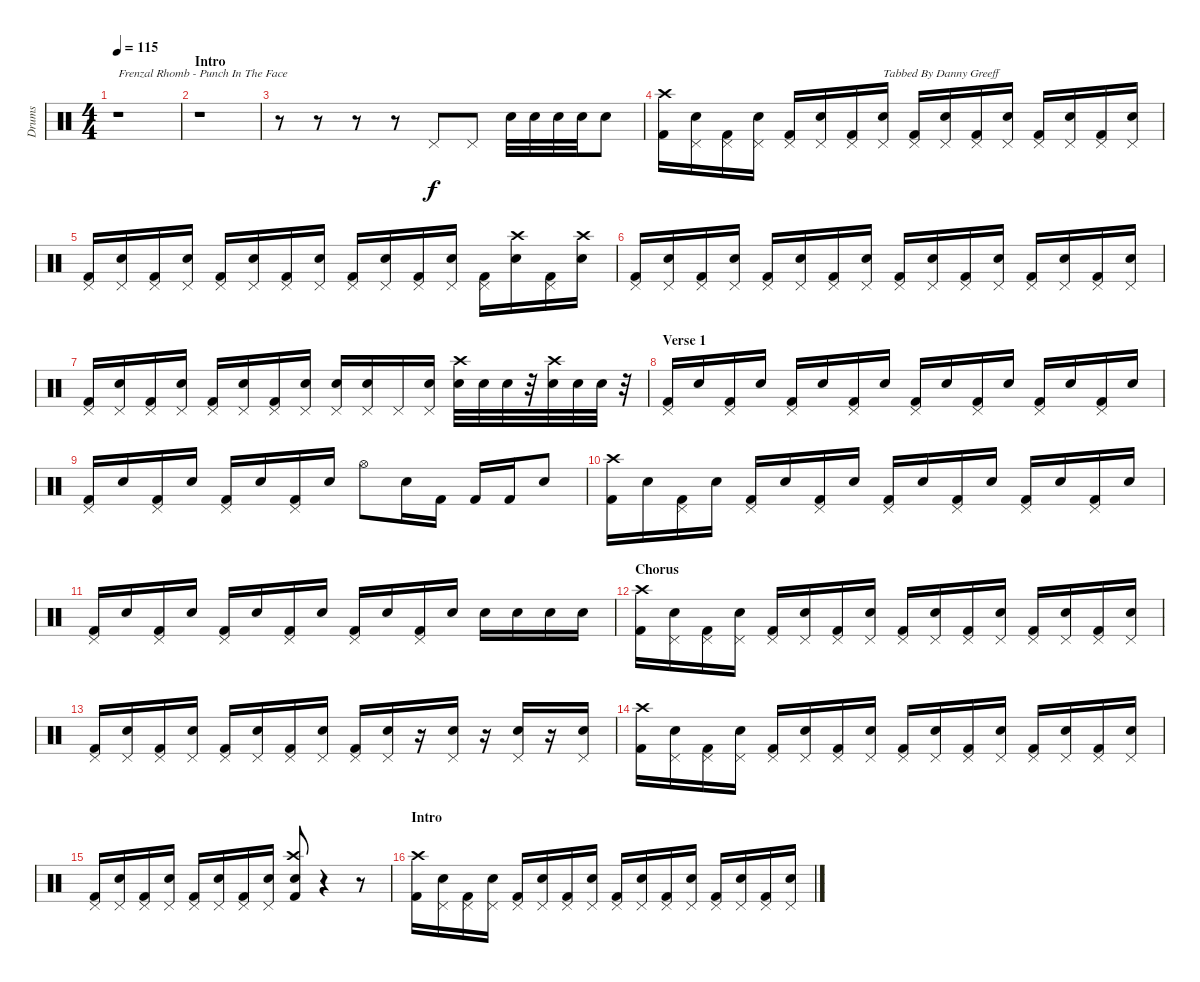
\track ("Drums" "Drums") {instrument percussion}
\staff {score}
\articulation defaults
\ts (4 4)
\tempo 115
\clef neutral
\ks c
r.1{txt "Frenzal Rhomb - Punch In The Face" dy f} |
\section ("" "Intro")
r.1 |
r.8 r.8 r.8 r.8 "Pedal Hi-Hat (hit)".8 "Pedal Hi-Hat (hit)".8 "Electric Snare (hit)".32 "Electric Snare (hit)".32 "Electric Snare (hit)".32 "Electric Snare (hit)".32 "Electric Snare (hit)".8 |
("Crash high (hit)" "Kick (hit) 2").16 ("Pedal Hi-Hat (hit)" "Electric Snare (hit)").16 ("Pedal Hi-Hat (hit)" "Kick (hit) 2").16 ("Pedal Hi-Hat (hit)" "Electric Snare (hit)").16 ("Pedal Hi-Hat (hit)" "Kick (hit) 2").16 ("Pedal Hi-Hat (hit)" "Electric Snare (hit)").16 ("Pedal Hi-Hat (hit)" "Kick (hit) 2").16 ("Pedal Hi-Hat (hit)" "Electric Snare (hit)").16{txt "Tabbed By Danny Greeff"} ("Pedal Hi-Hat (hit)" "Kick (hit) 2").16 ("Pedal Hi-Hat (hit)" "Electric Snare (hit)").16 ("Pedal Hi-Hat (hit)" "Kick (hit) 2").16 ("Pedal Hi-Hat (hit)" "Electric Snare (hit)").16 ("Pedal Hi-Hat (hit)" "Kick (hit) 2").16 ("Pedal Hi-Hat (hit)" "Electric Snare (hit)").16 ("Pedal Hi-Hat (hit)" "Kick (hit) 2").16 ("Pedal Hi-Hat (hit)" "Electric Snare (hit)").16 |
("Pedal Hi-Hat (hit)" "Kick (hit) 2").16 ("Pedal Hi-Hat (hit)" "Electric Snare (hit)").16 ("Pedal Hi-Hat (hit)" "Kick (hit) 2").16 ("Pedal Hi-Hat (hit)" "Electric Snare (hit)").16 ("Pedal Hi-Hat (hit)" "Kick (hit) 2").16 ("Pedal Hi-Hat (hit)" "Electric Snare (hit)").16 ("Pedal Hi-Hat (hit)" "Kick (hit) 2").16 ("Pedal Hi-Hat (hit)" "Electric Snare (hit)").16 ("Pedal Hi-Hat (hit)" "Kick (hit) 2").16 ("Pedal Hi-Hat (hit)" "Electric Snare (hit)").16 ("Pedal Hi-Hat (hit)" "Kick (hit) 2").16 ("Pedal Hi-Hat (hit)" "Electric Snare (hit)").16 ("Pedal Hi-Hat (hit)" "Kick (hit) 2").16 ("Crash high (hit)" "Electric Snare (hit)").16 ("Pedal Hi-Hat (hit)" "Kick (hit) 2").16 ("Crash high (hit)" "Electric Snare (hit)").16 |
("Pedal Hi-Hat (hit)" "Kick (hit) 2").16 ("Pedal Hi-Hat (hit)" "Electric Snare (hit)").16 ("Pedal Hi-Hat (hit)" "Kick (hit) 2").16 ("Pedal Hi-Hat (hit)" "Electric Snare (hit)").16 ("Pedal Hi-Hat (hit)" "Kick (hit) 2").16 ("Pedal Hi-Hat (hit)" "Electric Snare (hit)").16 ("Pedal Hi-Hat (hit)" "Kick (hit) 2").16 ("Pedal Hi-Hat (hit)" "Electric Snare (hit)").16 ("Pedal Hi-Hat (hit)" "Kick (hit) 2").16 ("Pedal Hi-Hat (hit)" "Electric Snare (hit)").16 ("Pedal Hi-Hat (hit)" "Kick (hit) 2").16 ("Pedal Hi-Hat (hit)" "Electric Snare (hit)").16 ("Pedal Hi-Hat (hit)" "Kick (hit) 2").16 ("Pedal Hi-Hat (hit)" "Electric Snare (hit)").16 ("Pedal Hi-Hat (hit)" "Kick (hit) 2").16 ("Pedal Hi-Hat (hit)" "Electric Snare (hit)").16 |
("Pedal Hi-Hat (hit)" "Kick (hit) 2").16 ("Pedal Hi-Hat (hit)" "Electric Snare (hit)").16 ("Pedal Hi-Hat (hit)" "Kick (hit) 2").16 ("Pedal Hi-Hat (hit)" "Electric Snare (hit)").16 ("Pedal Hi-Hat (hit)" "Kick (hit) 2").16 ("Pedal Hi-Hat (hit)" "Electric Snare (hit)").16 ("Pedal Hi-Hat (hit)" "Kick (hit) 2").16 ("Pedal Hi-Hat (hit)" "Electric Snare (hit)").16 ("Pedal Hi-Hat (hit)" "Electric Snare (hit)").16 ("Pedal Hi-Hat (hit)" "Electric Snare (hit)").16 "Pedal Hi-Hat (hit)".16 ("Pedal Hi-Hat (hit)" "Electric Snare (hit)").16 ("Crash high (hit)" "Electric Snare (hit)").32 "Electric Snare (hit)".32 "Electric Snare (hit)".32 r.32 ("Crash high (hit)" "Electric Snare (hit)").32 "Electric Snare (hit)".32 "Electric Snare (hit)".32 r.32 |
\section ("" "Verse 1")
("Pedal Hi-Hat (hit)" "Kick (hit) 2").16 "Electric Snare (hit)".16 ("Pedal Hi-Hat (hit)" "Kick (hit) 2").16 "Electric Snare (hit)".16 ("Pedal Hi-Hat (hit)" "Kick (hit) 2").16 "Electric Snare (hit)".16 ("Pedal Hi-Hat (hit)" "Kick (hit) 2").16 "Electric Snare (hit)".16 ("Pedal Hi-Hat (hit)" "Kick (hit) 2").16 "Electric Snare (hit)".16 ("Pedal Hi-Hat (hit)" "Kick (hit) 2").16 "Electric Snare (hit)".16 ("Pedal Hi-Hat (hit)" "Kick (hit) 2").16 "Electric Snare (hit)".16 ("Pedal Hi-Hat (hit)" "Kick (hit) 2").16 "Electric Snare (hit)".16 |
("Pedal Hi-Hat (hit)" "Kick (hit) 2").16 "Electric Snare (hit)".16 ("Pedal Hi-Hat (hit)" "Kick (hit) 2").16 "Electric Snare (hit)".16 ("Pedal Hi-Hat (hit)" "Kick (hit) 2").16 "Electric Snare (hit)".16 ("Pedal Hi-Hat (hit)" "Kick (hit) 2").16 "Electric Snare (hit)".16 "Hi-Hat (open)".8 "Electric Snare (hit)".16 "Kick (hit) 2".16 "Kick (hit) 2".16 "Kick (hit) 2".16 "Electric Snare (hit)".8 |
("Crash high (hit)" "Kick (hit) 2").16 "Electric Snare (hit)".16 ("Pedal Hi-Hat (hit)" "Kick (hit) 2").16 "Electric Snare (hit)".16 ("Pedal Hi-Hat (hit)" "Kick (hit) 2").16 "Electric Snare (hit)".16 ("Pedal Hi-Hat (hit)" "Kick (hit) 2").16 "Electric Snare (hit)".16 ("Pedal Hi-Hat (hit)" "Kick (hit) 2").16 "Electric Snare (hit)".16 ("Pedal Hi-Hat (hit)" "Kick (hit) 2").16 "Electric Snare (hit)".16 ("Pedal Hi-Hat (hit)" "Kick (hit) 2").16 "Electric Snare (hit)".16 ("Pedal Hi-Hat (hit)" "Kick (hit) 2").16 "Electric Snare (hit)".16 |
("Pedal Hi-Hat (hit)" "Kick (hit) 2").16 "Electric Snare (hit)".16 ("Pedal Hi-Hat (hit)" "Kick (hit) 2").16 "Electric Snare (hit)".16 ("Pedal Hi-Hat (hit)" "Kick (hit) 2").16 "Electric Snare (hit)".16 ("Pedal Hi-Hat (hit)" "Kick (hit) 2").16 "Electric Snare (hit)".16 ("Pedal Hi-Hat (hit)" "Kick (hit) 2").16 "Electric Snare (hit)".16 ("Pedal Hi-Hat (hit)" "Kick (hit) 2").16 "Electric Snare (hit)".16 "Electric Snare (hit)".16 "Electric Snare (hit)".16 "Electric Snare (hit)".16 "Electric Snare (hit)".16 |
\section ("" "Chorus")
("Crash high (hit)" "Kick (hit) 2").16 ("Pedal Hi-Hat (hit)" "Electric Snare (hit)").16 ("Pedal Hi-Hat (hit)" "Kick (hit) 2").16 ("Pedal Hi-Hat (hit)" "Electric Snare (hit)").16 ("Pedal Hi-Hat (hit)" "Kick (hit) 2").16 ("Pedal Hi-Hat (hit)" "Electric Snare (hit)").16 ("Pedal Hi-Hat (hit)" "Kick (hit) 2").16 ("Pedal Hi-Hat (hit)" "Electric Snare (hit)").16 ("Pedal Hi-Hat (hit)" "Kick (hit) 2").16 ("Pedal Hi-Hat (hit)" "Electric Snare (hit)").16 ("Pedal Hi-Hat (hit)" "Kick (hit) 2").16 ("Pedal Hi-Hat (hit)" "Electric Snare (hit)").16 ("Pedal Hi-Hat (hit)" "Kick (hit) 2").16 ("Pedal Hi-Hat (hit)" "Electric Snare (hit)").16 ("Pedal Hi-Hat (hit)" "Kick (hit) 2").16 ("Pedal Hi-Hat (hit)" "Electric Snare (hit)").16 |
("Pedal Hi-Hat (hit)" "Kick (hit) 2").16 ("Pedal Hi-Hat (hit)" "Electric Snare (hit)").16 ("Pedal Hi-Hat (hit)" "Kick (hit) 2").16 ("Pedal Hi-Hat (hit)" "Electric Snare (hit)").16 ("Pedal Hi-Hat (hit)" "Kick (hit) 2").16 ("Pedal Hi-Hat (hit)" "Electric Snare (hit)").16 ("Pedal Hi-Hat (hit)" "Kick (hit) 2").16 ("Pedal Hi-Hat (hit)" "Electric Snare (hit)").16 ("Pedal Hi-Hat (hit)" "Kick (hit) 2").16 ("Pedal Hi-Hat (hit)" "Electric Snare (hit)").16 r.16 ("Pedal Hi-Hat (hit)" "Electric Snare (hit)").16 r.16 ("Pedal Hi-Hat (hit)" "Electric Snare (hit)").16 r.16 ("Pedal Hi-Hat (hit)" "Electric Snare (hit)").16 |
("Crash high (hit)" "Kick (hit) 2").16 ("Pedal Hi-Hat (hit)" "Electric Snare (hit)").16 ("Pedal Hi-Hat (hit)" "Kick (hit) 2").16 ("Pedal Hi-Hat (hit)" "Electric Snare (hit)").16 ("Pedal Hi-Hat (hit)" "Kick (hit) 2").16 ("Pedal Hi-Hat (hit)" "Electric Snare (hit)").16 ("Pedal Hi-Hat (hit)" "Kick (hit) 2").16 ("Pedal Hi-Hat (hit)" "Electric Snare (hit)").16 ("Pedal Hi-Hat (hit)" "Kick (hit) 2").16 ("Pedal Hi-Hat (hit)" "Electric Snare (hit)").16 ("Pedal Hi-Hat (hit)" "Kick (hit) 2").16 ("Pedal Hi-Hat (hit)" "Electric Snare (hit)").16 ("Pedal Hi-Hat (hit)" "Kick (hit) 2").16 ("Pedal Hi-Hat (hit)" "Electric Snare (hit)").16 ("Pedal Hi-Hat (hit)" "Kick (hit) 2").16 ("Pedal Hi-Hat (hit)" "Electric Snare (hit)").16 |
("Pedal Hi-Hat (hit)" "Kick (hit) 2").16 ("Pedal Hi-Hat (hit)" "Electric Snare (hit)").16 ("Pedal Hi-Hat (hit)" "Kick (hit) 2").16 ("Pedal Hi-Hat (hit)" "Electric Snare (hit)").16 ("Pedal Hi-Hat (hit)" "Kick (hit) 2").16 ("Pedal Hi-Hat (hit)" "Electric Snare (hit)").16 ("Pedal Hi-Hat (hit)" "Kick (hit) 2").16 ("Pedal Hi-Hat (hit)" "Electric Snare (hit)").16 ("Crash high (hit)" "Electric Snare (hit)" "Kick (hit) 2").8 r.4 r.8 |
\section ("" "Intro")
("Crash high (hit)" "Kick (hit) 2").16 ("Pedal Hi-Hat (hit)" "Electric Snare (hit)").16 ("Pedal Hi-Hat (hit)" "Kick (hit) 2").16 ("Pedal Hi-Hat (hit)" "Electric Snare (hit)").16 ("Pedal Hi-Hat (hit)" "Kick (hit) 2").16 ("Pedal Hi-Hat (hit)" "Electric Snare (hit)").16 ("Pedal Hi-Hat (hit)" "Kick (hit) 2").16 ("Pedal Hi-Hat (hit)" "Electric Snare (hit)").16 ("Pedal Hi-Hat (hit)" "Kick (hit) 2").16 ("Pedal Hi-Hat (hit)" "Electric Snare (hit)").16 ("Pedal Hi-Hat (hit)" "Kick (hit) 2").16 ("Pedal Hi-Hat (hit)" "Electric Snare (hit)").16 ("Pedal Hi-Hat (hit)" "Kick (hit) 2").16 ("Pedal Hi-Hat (hit)" "Electric Snare (hit)").16 ("Pedal Hi-Hat (hit)" "Kick (hit) 2").16 ("Pedal Hi-Hat (hit)" "Electric Snare (hit)").16
